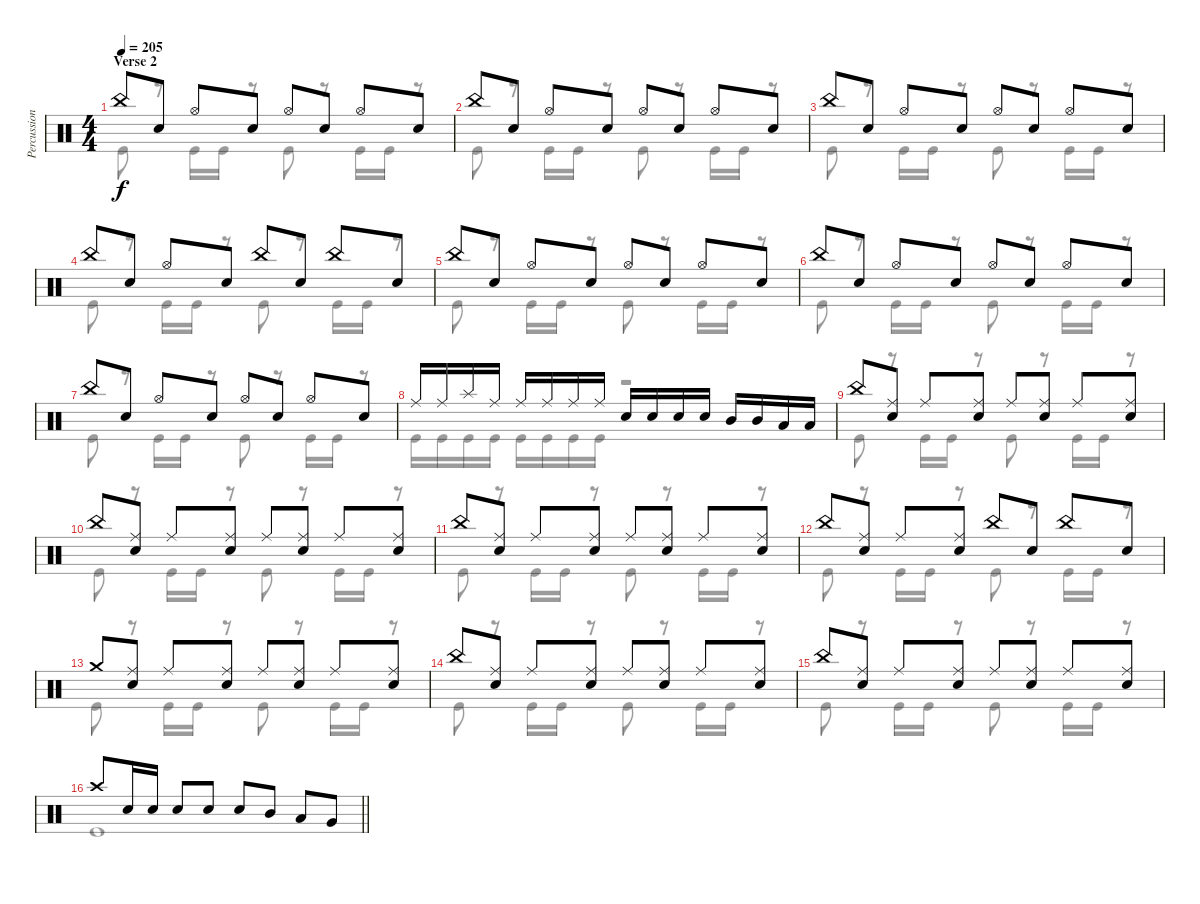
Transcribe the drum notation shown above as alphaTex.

\track ("Percussion" "Percussion") {instrument percussion}
\staff {score}
\articulation defaults
\voice
\ts (4 4)
\section ("" "Verse 2")
\tempo 205
\clef neutral
\ks c "China (hit)".8{dy f} "Electric Snare (hit)".8 "Hi-Hat (open)".8 "Electric Snare (hit)".8 "Hi-Hat (open)".8 "Electric Snare (hit)".8 "Hi-Hat (open)".8 "Electric Snare (hit)".8
|
"China (hit)".8 "Electric Snare (hit)".8 "Hi-Hat (open)".8 "Electric Snare (hit)".8 "Hi-Hat (open)".8 "Electric Snare (hit)".8 "Hi-Hat (open)".8 "Electric Snare (hit)".8 |
"China (hit)".8 "Electric Snare (hit)".8 "Hi-Hat (open)".8 "Electric Snare (hit)".8 "Hi-Hat (open)".8 "Electric Snare (hit)".8 "Hi-Hat (open)".8 "Electric Snare (hit)".8 |
"China (hit)".8 "Electric Snare (hit)".8 "Hi-Hat (open)".8 "Electric Snare (hit)".8 "China (hit)".8 "Electric Snare (hit)".8 "China (hit)".8 "Electric Snare (hit)".8 |
"China (hit)".8 "Electric Snare (hit)".8 "Hi-Hat (open)".8 "Electric Snare (hit)".8 "Hi-Hat (open)".8 "Electric Snare (hit)".8 "Hi-Hat (open)".8 "Electric Snare (hit)".8 |
"China (hit)".8 "Electric Snare (hit)".8 "Hi-Hat (open)".8 "Electric Snare (hit)".8 "Hi-Hat (open)".8 "Electric Snare (hit)".8 "Hi-Hat (open)".8 "Electric Snare (hit)".8 |
"China (hit)".8 "Electric Snare (hit)".8 "Hi-Hat (open)".8 "Electric Snare (hit)".8 "Hi-Hat (open)".8 "Electric Snare (hit)".8 "Hi-Hat (open)".8 "Electric Snare (hit)".8 |
"Ride (middle)".16 "Ride (middle)".16 "Splash (hit)".16 "Ride (middle)".16 "Ride (middle)".16 "Ride (middle)".16 "Ride (middle)".16 "Ride (middle)".16 "Electric Snare (hit)".16 "Electric Snare (hit)".16 "Electric Snare (hit)".16 "Electric Snare (hit)".16 "Mid Tom (hit)".16 "Mid Tom (hit)".16 "Low Tom (hit)".16 "Low Tom (hit)".16 |
"China (hit)".8 ("Ride (middle)" "Electric Snare (hit)").8 "Ride (middle)".8 ("Ride (middle)" "Electric Snare (hit)").8 "Ride (middle)".8 ("Ride (middle)" "Electric Snare (hit)").8 "Ride (middle)".8 ("Ride (middle)" "Electric Snare (hit)").8 |
"China (hit)".8 ("Ride (middle)" "Electric Snare (hit)").8 "Ride (middle)".8 ("Ride (middle)" "Electric Snare (hit)").8 "Ride (middle)".8 ("Ride (middle)" "Electric Snare (hit)").8 "Ride (middle)".8 ("Ride (middle)" "Electric Snare (hit)").8 |
"China (hit)".8 ("Ride (middle)" "Electric Snare (hit)").8 "Ride (middle)".8 ("Ride (middle)" "Electric Snare (hit)").8 "Ride (middle)".8 ("Ride (middle)" "Electric Snare (hit)").8 "Ride (middle)".8 ("Ride (middle)" "Electric Snare (hit)").8 |
"China (hit)".8 ("Ride (middle)" "Electric Snare (hit)").8 "Ride (middle)".8 ("Ride (middle)" "Electric Snare (hit)").8 "China (hit)".8 "Electric Snare (hit)".8 "China (hit)".8 "Electric Snare (hit)".8 |
"Crash medium (hit)".8 ("Ride (middle)" "Electric Snare (hit)").8 "Ride (middle)".8 ("Ride (middle)" "Electric Snare (hit)").8 "Ride (middle)".8 ("Ride (middle)" "Electric Snare (hit)").8 "Ride (middle)".8 ("Ride (middle)" "Electric Snare (hit)").8 |
"China (hit)".8 ("Ride (middle)" "Electric Snare (hit)").8 "Ride (middle)".8 ("Ride (middle)" "Electric Snare (hit)").8 "Ride (middle)".8 ("Ride (middle)" "Electric Snare (hit)").8 "Ride (middle)".8 ("Ride (middle)" "Electric Snare (hit)").8 |
"China (hit)".8 ("Ride (middle)" "Electric Snare (hit)").8 "Ride (middle)".8 ("Ride (middle)" "Electric Snare (hit)").8 "Ride (middle)".8 ("Ride (middle)" "Electric Snare (hit)").8 "Ride (middle)".8 ("Ride (middle)" "Electric Snare (hit)").8 |
\barLineRight lightlight "Crash high (hit)".8 "Electric Snare (hit)".16 "Electric Snare (hit)".16 "Electric Snare (hit)".8 "Electric Snare (hit)".8 "Electric Snare (hit)".8 "Mid Tom (hit)".8 "Low Tom (hit)".8 "Very Low Tom (hit)".8
\voice
\clef neutral
\ottava regular
\simile none
\ks c "Kick (hit)".8{dy f}
r.8 "Kick (hit)".16 "Kick (hit)".16 r.8 "Kick (hit)".8 r.8 "Kick (hit)".16 "Kick (hit)".16 r.8 |
"Kick (hit)".8 r.8 "Kick (hit)".16 "Kick (hit)".16 r.8 "Kick (hit)".8 r.8 "Kick (hit)".16 "Kick (hit)".16 r.8 |
"Kick (hit)".8 r.8 "Kick (hit)".16 "Kick (hit)".16 r.8 "Kick (hit)".8 r.8 "Kick (hit)".16 "Kick (hit)".16 r.8 |
"Kick (hit)".8 r.8 "Kick (hit)".16 "Kick (hit)".16 r.8 "Kick (hit)".8 r.8 "Kick (hit)".16 "Kick (hit)".16 r.8 |
"Kick (hit)".8 r.8 "Kick (hit)".16 "Kick (hit)".16 r.8 "Kick (hit)".8 r.8 "Kick (hit)".16 "Kick (hit)".16 r.8 |
"Kick (hit)".8 r.8 "Kick (hit)".16 "Kick (hit)".16 r.8 "Kick (hit)".8 r.8 "Kick (hit)".16 "Kick (hit)".16 r.8 |
"Kick (hit)".8 r.8 "Kick (hit)".16 "Kick (hit)".16 r.8 "Kick (hit)".8 r.8 "Kick (hit)".16 "Kick (hit)".16 r.8 |
"Kick (hit)".16 "Kick (hit)".16 "Kick (hit)".16 "Kick (hit)".16 "Kick (hit)".16 "Kick (hit)".16 "Kick (hit)".16 "Kick (hit)".16 r.2 |
"Kick (hit)".8 r.8 "Kick (hit)".16 "Kick (hit)".16 r.8 "Kick (hit)".8 r.8 "Kick (hit)".16 "Kick (hit)".16 r.8 |
"Kick (hit)".8 r.8 "Kick (hit)".16 "Kick (hit)".16 r.8 "Kick (hit)".8 r.8 "Kick (hit)".16 "Kick (hit)".16 r.8 |
"Kick (hit)".8 r.8 "Kick (hit)".16 "Kick (hit)".16 r.8 "Kick (hit)".8 r.8 "Kick (hit)".16 "Kick (hit)".16 r.8 |
"Kick (hit)".8 r.8 "Kick (hit)".16 "Kick (hit)".16 r.8 "Kick (hit)".8 r.8 "Kick (hit)".16 "Kick (hit)".16 r.8 |
"Kick (hit)".8 r.8 "Kick (hit)".16 "Kick (hit)".16 r.8 "Kick (hit)".8 r.8 "Kick (hit)".16 "Kick (hit)".16 r.8 |
"Kick (hit)".8 r.8 "Kick (hit)".16 "Kick (hit)".16 r.8 "Kick (hit)".8 r.8 "Kick (hit)".16 "Kick (hit)".16 r.8 |
"Kick (hit)".8 r.8 "Kick (hit)".16 "Kick (hit)".16 r.8 "Kick (hit)".8 r.8 "Kick (hit)".16 "Kick (hit)".16 r.8 |
\barLineRight lightlight "Kick (hit)".1
